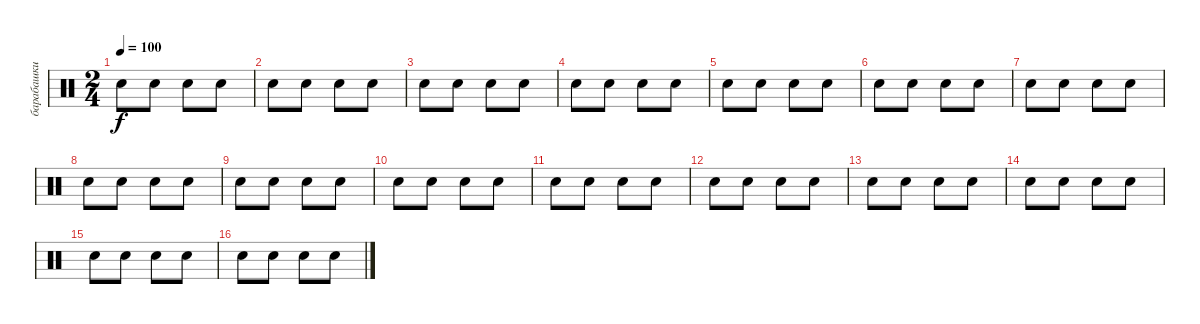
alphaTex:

\track ("барабашки middle" "барабашки ") {instrument percussion}
\staff {score}
\articulation defaults
\ts (2 4)
\tempo 100
\clef neutral
\ks c "Electric Snare (hit)".8{dy f} "Electric Snare (hit)".8 "Electric Snare (hit)".8 "Electric Snare (hit)".8
|
"Electric Snare (hit)".8 "Electric Snare (hit)".8 "Electric Snare (hit)".8 "Electric Snare (hit)".8 |
"Electric Snare (hit)".8 "Electric Snare (hit)".8 "Electric Snare (hit)".8 "Electric Snare (hit)".8 |
"Electric Snare (hit)".8 "Electric Snare (hit)".8 "Electric Snare (hit)".8 "Electric Snare (hit)".8 |
"Electric Snare (hit)".8 "Electric Snare (hit)".8 "Electric Snare (hit)".8 "Electric Snare (hit)".8 |
"Electric Snare (hit)".8 "Electric Snare (hit)".8 "Electric Snare (hit)".8 "Electric Snare (hit)".8 |
"Electric Snare (hit)".8 "Electric Snare (hit)".8 "Electric Snare (hit)".8 "Electric Snare (hit)".8 |
"Electric Snare (hit)".8 "Electric Snare (hit)".8 "Electric Snare (hit)".8 "Electric Snare (hit)".8 |
"Electric Snare (hit)".8 "Electric Snare (hit)".8 "Electric Snare (hit)".8 "Electric Snare (hit)".8 |
"Electric Snare (hit)".8 "Electric Snare (hit)".8 "Electric Snare (hit)".8 "Electric Snare (hit)".8 |
"Electric Snare (hit)".8 "Electric Snare (hit)".8 "Electric Snare (hit)".8 "Electric Snare (hit)".8 |
"Electric Snare (hit)".8 "Electric Snare (hit)".8 "Electric Snare (hit)".8 "Electric Snare (hit)".8 |
"Electric Snare (hit)".8 "Electric Snare (hit)".8 "Electric Snare (hit)".8 "Electric Snare (hit)".8 |
"Electric Snare (hit)".8 "Electric Snare (hit)".8 "Electric Snare (hit)".8 "Electric Snare (hit)".8 |
"Electric Snare (hit)".8 "Electric Snare (hit)".8 "Electric Snare (hit)".8 "Electric Snare (hit)".8 |
"Electric Snare (hit)".8 "Electric Snare (hit)".8 "Electric Snare (hit)".8 "Electric Snare (hit)".8
